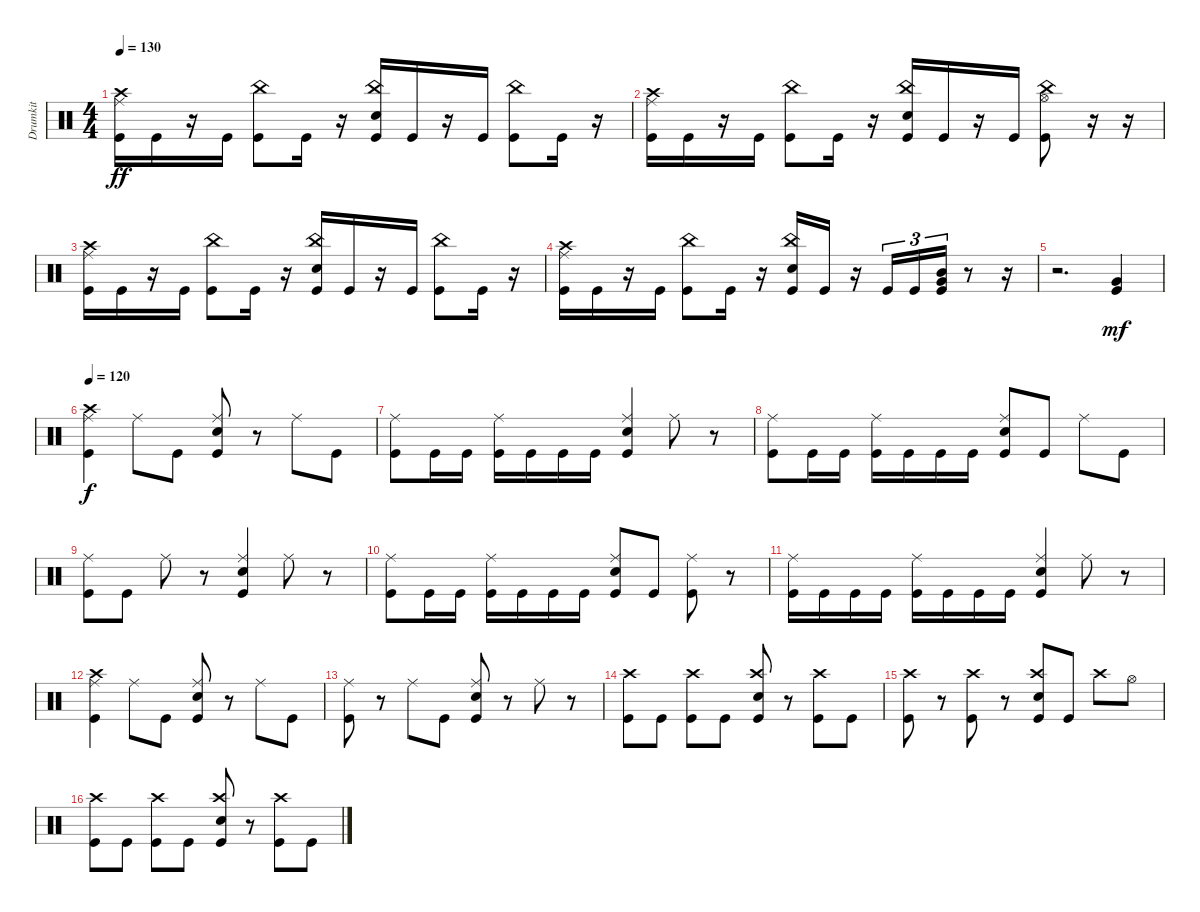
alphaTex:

\track ("Drumkit" "Drumkit") {instrument percussion}
\staff {score}
\articulation defaults
\ts (4 4)
\tempo 130
\clef neutral
\ks c
("Kick (hit)" "Ride (middle)" "Crash high (hit)").16{dy ff} "Kick (hit)".16 r.16 "Kick (hit)".16 ("Kick (hit)" "China (hit)").8 "Kick (hit)".16 r.16 ("Kick (hit)" "Snare (hit) 2" "China (hit)").16 "Kick (hit)".16 r.16 "Kick (hit)".16 ("Kick (hit)" "China (hit)").8 "Kick (hit)".16 r.16 |
("Kick (hit)" "Ride (middle)" "Crash high (hit)").16 "Kick (hit)".16 r.16 "Kick (hit)".16 ("Kick (hit)" "China (hit)").8 "Kick (hit)".16 r.16 ("Kick (hit)" "Snare (hit) 2" "China (hit)").16 "Kick (hit)".16 r.16 "Kick (hit)".16 ("Kick (hit)" "China (hit)" "Hi-Hat (open)").8 r.16 r.16 |
("Kick (hit)" "Ride (middle)" "Crash high (hit)").16 "Kick (hit)".16 r.16 "Kick (hit)".16 ("Kick (hit)" "China (hit)").8 "Kick (hit)".16 r.16 ("Kick (hit)" "Snare (hit) 2" "China (hit)").16 "Kick (hit)".16 r.16 "Kick (hit)".16 ("Kick (hit)" "China (hit)").8 "Kick (hit)".16 r.16 |
("Kick (hit)" "Ride (middle)" "Crash high (hit)").16 "Kick (hit)".16 r.16 "Kick (hit)".16 ("Kick (hit)" "China (hit)").8 "Kick (hit)".16 r.16 ("Kick (hit)" "Snare (hit) 2" "China (hit)").16 "Kick (hit)".16 r.16 "Kick (hit)".16{tu (3 2)} "Kick (hit)".16{tu (3 2)} ("Kick (hit)" "Very Low Tom (hit)" "Mid Tom (hit)").16{tu (3 2)} r.8 r.16 |
r.2{d} ("Kick (hit)" "Very Low Tom (hit)").4{dy mf} |
\tempo 120
("Crash high (hit)" "Ride (middle)" "Kick (hit)").4{dy f} "Ride (middle)".8 "Kick (hit)".8 ("Kick (hit)" "Snare (hit) 2" "Ride (middle)").8 r.8 "Ride (middle)".8 "Kick (hit)".8 |
("Kick (hit)" "Ride (middle)").8 "Kick (hit)".16 "Kick (hit)".16 ("Kick (hit)" "Ride (middle)").16 "Kick (hit)".16 "Kick (hit)".16 "Kick (hit)".16 ("Kick (hit)" "Snare (hit) 2" "Ride (middle)").4 "Ride (middle)".8 r.8 |
("Kick (hit)" "Ride (middle)").8 "Kick (hit)".16 "Kick (hit)".16 ("Kick (hit)" "Ride (middle)").16 "Kick (hit)".16 "Kick (hit)".16 "Kick (hit)".16 ("Kick (hit)" "Snare (hit) 2" "Ride (middle)").8 "Kick (hit)".8 "Ride (middle)".8 "Kick (hit)".8 |
("Kick (hit)" "Ride (middle)").8 "Kick (hit)".8 "Ride (middle)".8 r.8 ("Snare (hit) 2" "Kick (hit)" "Ride (middle)").4 "Ride (middle)".8 r.8 |
("Kick (hit)" "Ride (middle)").8 "Kick (hit)".16 "Kick (hit)".16 ("Kick (hit)" "Ride (middle)").16 "Kick (hit)".16 "Kick (hit)".16 "Kick (hit)".16 ("Kick (hit)" "Snare (hit) 2" "Ride (middle)").8 "Kick (hit)".8 ("Kick (hit)" "Ride (middle)").8 r.8 |
("Kick (hit)" "Ride (middle)").16 "Kick (hit)".16 "Kick (hit)".16 "Kick (hit)".16 ("Kick (hit)" "Ride (middle)").16 "Kick (hit)".16 "Kick (hit)".16 "Kick (hit)".16 ("Kick (hit)" "Snare (hit) 2" "Ride (middle)").4 "Ride (middle)".8 r.8 |
("Crash high (hit)" "Ride (middle)" "Kick (hit)").4 "Ride (middle)".8 "Kick (hit)".8 ("Kick (hit)" "Snare (hit) 2" "Ride (middle)").8 r.8 "Ride (middle)".8 "Kick (hit)".8 |
("Kick (hit)" "Ride (middle)").8 r.8 "Ride (middle)".8 "Kick (hit)".8 ("Kick (hit)" "Snare (hit) 2" "Ride (middle)").8 r.8 "Ride (middle)".8 r.8 |
("Kick (hit)" "Crash high (hit)").8 "Kick (hit)".8 ("Kick (hit)" "Crash high (hit)").8 "Kick (hit)".8 ("Kick (hit)" "Crash high (hit)" "Snare (hit) 2").8 r.8 ("Kick (hit)" "Crash high (hit)").8 "Kick (hit)".8 |
("Kick (hit)" "Crash high (hit)").8 r.8 ("Crash high (hit)" "Kick (hit)").8 r.8 ("Kick (hit)" "Snare (hit) 2" "Crash high (hit)").8 "Kick (hit)".8 "Crash high (hit)".8 "Hi-Hat (open)".8 |
("Kick (hit)" "Crash high (hit)").8 "Kick (hit)".8 ("Kick (hit)" "Crash high (hit)").8 "Kick (hit)".8 ("Kick (hit)" "Crash high (hit)" "Snare (hit) 2").8 r.8 ("Kick (hit)" "Crash high (hit)").8 "Kick (hit)".8
